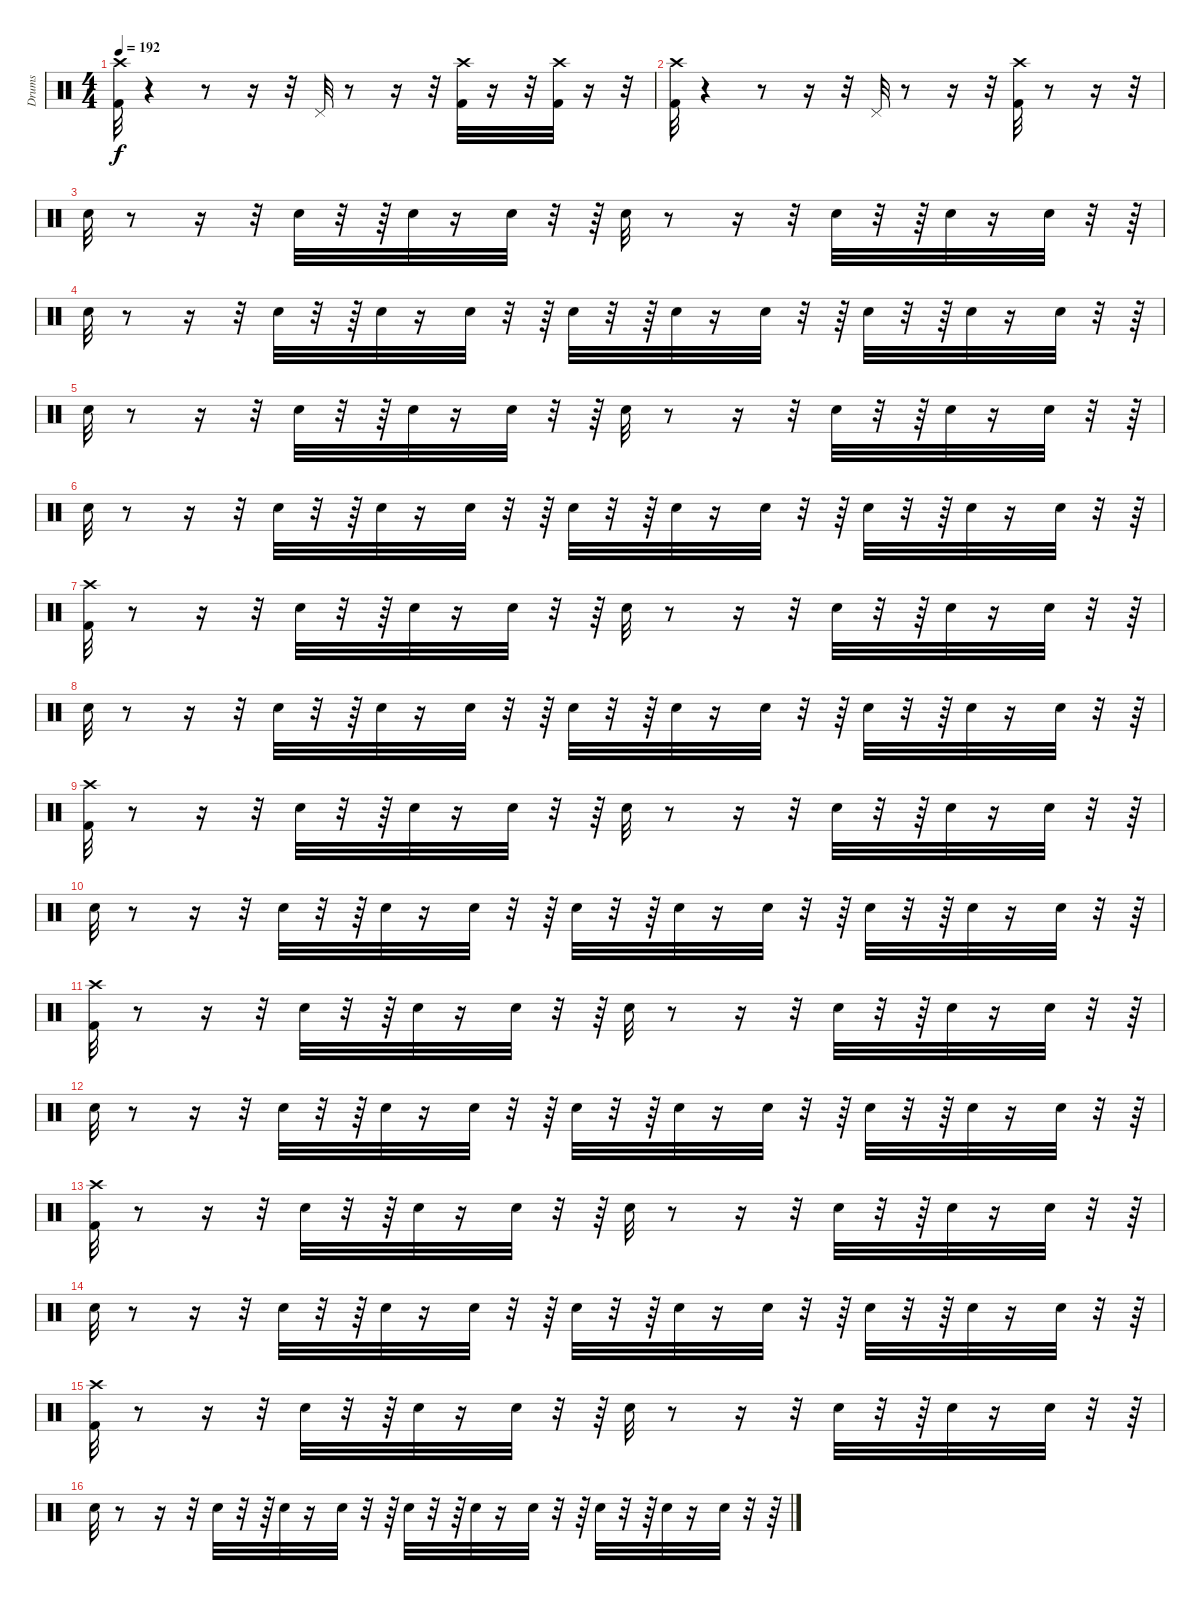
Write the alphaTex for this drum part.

\track ("Drums" "Drums") {instrument percussion}
\staff {score}
\articulation defaults
\ts (4 4)
\tempo 192
\clef neutral
\ks c
("Kick (hit) 2" "Crash high (hit)").32{dy f} r.4 r.8 r.16 r.32 "Pedal Hi-Hat (hit)".32 r.8 r.16 r.32 ("Crash high (hit)" "Kick (hit) 2").32 r.16 r.32 ("Crash high (hit)" "Kick (hit) 2").32 r.16 r.32 |
("Kick (hit) 2" "Crash high (hit)").32 r.4 r.8 r.16 r.32 "Pedal Hi-Hat (hit)".32 r.8 r.16 r.32 ("Kick (hit) 2" "Crash high (hit)").32 r.8 r.16 r.32 |
"Snare (hit) 2".32 r.8 r.16 r.32 "Snare (hit) 2".32 r.32 r.64 "Snare (hit) 2".32 r.16 "Snare (hit) 2".32 r.32 r.64 "Snare (hit) 2".32 r.8 r.16 r.32 "Snare (hit) 2".32 r.32 r.64 "Snare (hit) 2".32 r.16 "Snare (hit) 2".32 r.32 r.64 |
"Snare (hit) 2".32 r.8 r.16 r.32 "Snare (hit) 2".32 r.32 r.64 "Snare (hit) 2".32 r.16 "Snare (hit) 2".32 r.32 r.64 "Snare (hit) 2".32 r.32 r.64 "Snare (hit) 2".32 r.16 "Snare (hit) 2".32 r.32 r.64 "Snare (hit) 2".32 r.32 r.64 "Snare (hit) 2".32 r.16 "Snare (hit) 2".32 r.32 r.64 |
"Snare (hit) 2".32 r.8 r.16 r.32 "Snare (hit) 2".32 r.32 r.64 "Snare (hit) 2".32 r.16 "Snare (hit) 2".32 r.32 r.64 "Snare (hit) 2".32 r.8 r.16 r.32 "Snare (hit) 2".32 r.32 r.64 "Snare (hit) 2".32 r.16 "Snare (hit) 2".32 r.32 r.64 |
"Snare (hit) 2".32 r.8 r.16 r.32 "Snare (hit) 2".32 r.32 r.64 "Snare (hit) 2".32 r.16 "Snare (hit) 2".32 r.32 r.64 "Snare (hit) 2".32 r.32 r.64 "Snare (hit) 2".32 r.16 "Snare (hit) 2".32 r.32 r.64 "Snare (hit) 2".32 r.32 r.64 "Snare (hit) 2".32 r.16 "Snare (hit) 2".32 r.32 r.64 |
("Kick (hit) 2" "Crash high (hit)").32 r.8 r.16 r.32 "Snare (hit) 2".32 r.32 r.64 "Snare (hit) 2".32 r.16 "Snare (hit) 2".32 r.32 r.64 "Snare (hit) 2".32 r.8 r.16 r.32 "Snare (hit) 2".32 r.32 r.64 "Snare (hit) 2".32 r.16 "Snare (hit) 2".32 r.32 r.64 |
"Snare (hit) 2".32 r.8 r.16 r.32 "Snare (hit) 2".32 r.32 r.64 "Snare (hit) 2".32 r.16 "Snare (hit) 2".32 r.32 r.64 "Snare (hit) 2".32 r.32 r.64 "Snare (hit) 2".32 r.16 "Snare (hit) 2".32 r.32 r.64 "Snare (hit) 2".32 r.32 r.64 "Snare (hit) 2".32 r.16 "Snare (hit) 2".32 r.32 r.64 |
("Kick (hit) 2" "Crash high (hit)").32 r.8 r.16 r.32 "Snare (hit) 2".32 r.32 r.64 "Snare (hit) 2".32 r.16 "Snare (hit) 2".32 r.32 r.64 "Snare (hit) 2".32 r.8 r.16 r.32 "Snare (hit) 2".32 r.32 r.64 "Snare (hit) 2".32 r.16 "Snare (hit) 2".32 r.32 r.64 |
"Snare (hit) 2".32 r.8 r.16 r.32 "Snare (hit) 2".32 r.32 r.64 "Snare (hit) 2".32 r.16 "Snare (hit) 2".32 r.32 r.64 "Snare (hit) 2".32 r.32 r.64 "Snare (hit) 2".32 r.16 "Snare (hit) 2".32 r.32 r.64 "Snare (hit) 2".32 r.32 r.64 "Snare (hit) 2".32 r.16 "Snare (hit) 2".32 r.32 r.64 |
("Kick (hit) 2" "Crash high (hit)").32 r.8 r.16 r.32 "Snare (hit) 2".32 r.32 r.64 "Snare (hit) 2".32 r.16 "Snare (hit) 2".32 r.32 r.64 "Snare (hit) 2".32 r.8 r.16 r.32 "Snare (hit) 2".32 r.32 r.64 "Snare (hit) 2".32 r.16 "Snare (hit) 2".32 r.32 r.64 |
"Snare (hit) 2".32 r.8 r.16 r.32 "Snare (hit) 2".32 r.32 r.64 "Snare (hit) 2".32 r.16 "Snare (hit) 2".32 r.32 r.64 "Snare (hit) 2".32 r.32 r.64 "Snare (hit) 2".32 r.16 "Snare (hit) 2".32 r.32 r.64 "Snare (hit) 2".32 r.32 r.64 "Snare (hit) 2".32 r.16 "Snare (hit) 2".32 r.32 r.64 |
("Kick (hit) 2" "Crash high (hit)").32 r.8 r.16 r.32 "Snare (hit) 2".32 r.32 r.64 "Snare (hit) 2".32 r.16 "Snare (hit) 2".32 r.32 r.64 "Snare (hit) 2".32 r.8 r.16 r.32 "Snare (hit) 2".32 r.32 r.64 "Snare (hit) 2".32 r.16 "Snare (hit) 2".32 r.32 r.64 |
"Snare (hit) 2".32 r.8 r.16 r.32 "Snare (hit) 2".32 r.32 r.64 "Snare (hit) 2".32 r.16 "Snare (hit) 2".32 r.32 r.64 "Snare (hit) 2".32 r.32 r.64 "Snare (hit) 2".32 r.16 "Snare (hit) 2".32 r.32 r.64 "Snare (hit) 2".32 r.32 r.64 "Snare (hit) 2".32 r.16 "Snare (hit) 2".32 r.32 r.64 |
("Kick (hit) 2" "Crash high (hit)").32 r.8 r.16 r.32 "Snare (hit) 2".32 r.32 r.64 "Snare (hit) 2".32 r.16 "Snare (hit) 2".32 r.32 r.64 "Snare (hit) 2".32 r.8 r.16 r.32 "Snare (hit) 2".32 r.32 r.64 "Snare (hit) 2".32 r.16 "Snare (hit) 2".32 r.32 r.64 |
"Snare (hit) 2".32 r.8 r.16 r.32 "Snare (hit) 2".32 r.32 r.64 "Snare (hit) 2".32 r.16 "Snare (hit) 2".32 r.32 r.64 "Snare (hit) 2".32 r.32 r.64 "Snare (hit) 2".32 r.16 "Snare (hit) 2".32 r.32 r.64 "Snare (hit) 2".32 r.32 r.64 "Snare (hit) 2".32 r.16 "Snare (hit) 2".32 r.32 r.64
